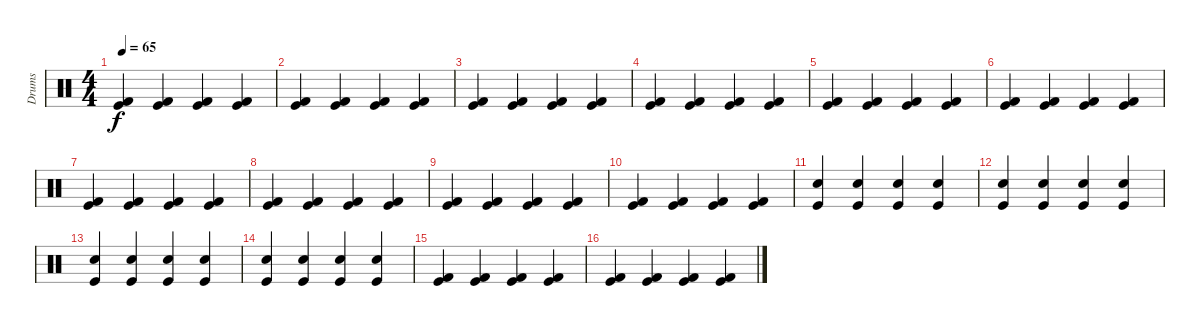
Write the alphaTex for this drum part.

\track ("Drums" "Drums") {instrument percussion}
\staff {score}
\articulation defaults
\ts (4 4)
\tempo 65
\clef neutral
\ks c
("Kick (hit)" "Kick (hit) 2").4{dy f} ("Kick (hit)" "Kick (hit) 2").4 ("Kick (hit)" "Kick (hit) 2").4 ("Kick (hit)" "Kick (hit) 2").4 |
("Kick (hit)" "Kick (hit) 2").4 ("Kick (hit)" "Kick (hit) 2").4 ("Kick (hit)" "Kick (hit) 2").4 ("Kick (hit)" "Kick (hit) 2").4 |
("Kick (hit)" "Kick (hit) 2").4 ("Kick (hit)" "Kick (hit) 2").4 ("Kick (hit)" "Kick (hit) 2").4 ("Kick (hit)" "Kick (hit) 2").4 |
("Kick (hit)" "Kick (hit) 2").4 ("Kick (hit)" "Kick (hit) 2").4 ("Kick (hit)" "Kick (hit) 2").4 ("Kick (hit)" "Kick (hit) 2").4 |
("Kick (hit)" "Kick (hit) 2").4 ("Kick (hit)" "Kick (hit) 2").4 ("Kick (hit)" "Kick (hit) 2").4 ("Kick (hit)" "Kick (hit) 2").4 |
("Kick (hit)" "Kick (hit) 2").4 ("Kick (hit)" "Kick (hit) 2").4 ("Kick (hit)" "Kick (hit) 2").4 ("Kick (hit)" "Kick (hit) 2").4 |
("Kick (hit)" "Kick (hit) 2").4 ("Kick (hit)" "Kick (hit) 2").4 ("Kick (hit)" "Kick (hit) 2").4 ("Kick (hit)" "Kick (hit) 2").4 |
("Kick (hit)" "Kick (hit) 2").4 ("Kick (hit)" "Kick (hit) 2").4 ("Kick (hit)" "Kick (hit) 2").4 ("Kick (hit)" "Kick (hit) 2").4 |
("Kick (hit)" "Kick (hit) 2").4 ("Kick (hit)" "Kick (hit) 2").4 ("Kick (hit)" "Kick (hit) 2").4 ("Kick (hit)" "Kick (hit) 2").4 |
("Kick (hit)" "Kick (hit) 2").4 ("Kick (hit)" "Kick (hit) 2").4 ("Kick (hit)" "Kick (hit) 2").4 ("Kick (hit)" "Kick (hit) 2").4 |
("Kick (hit)" "Snare (hit) 2").4 ("Kick (hit)" "Snare (hit) 2").4 ("Kick (hit)" "Snare (hit) 2").4 ("Kick (hit)" "Snare (hit) 2").4 |
("Kick (hit)" "Snare (hit) 2").4 ("Kick (hit)" "Snare (hit) 2").4 ("Kick (hit)" "Snare (hit) 2").4 ("Kick (hit)" "Snare (hit) 2").4 |
("Kick (hit)" "Snare (hit) 2").4 ("Kick (hit)" "Snare (hit) 2").4 ("Kick (hit)" "Snare (hit) 2").4 ("Kick (hit)" "Snare (hit) 2").4 |
("Kick (hit)" "Snare (hit) 2").4 ("Kick (hit)" "Snare (hit) 2").4 ("Kick (hit)" "Snare (hit) 2").4 ("Kick (hit)" "Snare (hit) 2").4 |
("Kick (hit)" "Kick (hit) 2").4 ("Kick (hit)" "Kick (hit) 2").4 ("Kick (hit)" "Kick (hit) 2").4 ("Kick (hit)" "Kick (hit) 2").4 |
("Kick (hit)" "Kick (hit) 2").4 ("Kick (hit)" "Kick (hit) 2").4 ("Kick (hit)" "Kick (hit) 2").4 ("Kick (hit)" "Kick (hit) 2").4
